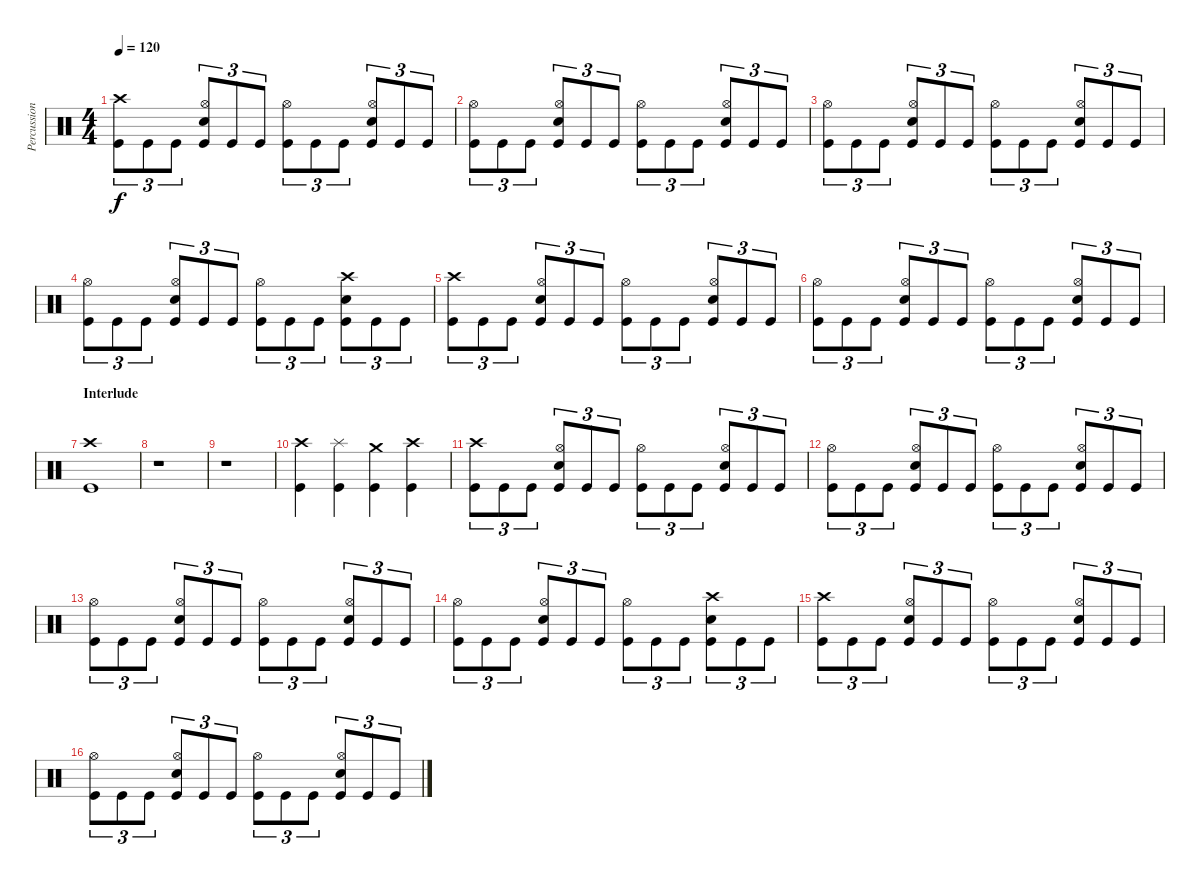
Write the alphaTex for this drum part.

\track ("Percussion" "Percussion") {instrument percussion}
\staff {score}
\articulation defaults
\ts (4 4)
\tempo 120
\clef neutral
\ks c
("Crash high (hit)" "Kick (hit)").8{tu (3 2) dy f} "Kick (hit)".8{tu (3 2)} "Kick (hit)".8{tu (3 2)} ("Hi-Hat (open)" "Snare (hit) 2" "Kick (hit)").8{tu (3 2)} "Kick (hit)".8{tu (3 2)} "Kick (hit)".8{tu (3 2)} ("Hi-Hat (open)" "Kick (hit)").8{tu (3 2)} "Kick (hit)".8{tu (3 2)} "Kick (hit)".8{tu (3 2)} ("Hi-Hat (open)" "Snare (hit) 2" "Kick (hit)").8{tu (3 2)} "Kick (hit)".8{tu (3 2)} "Kick (hit)".8{tu (3 2)} |
("Hi-Hat (open)" "Kick (hit)").8{tu (3 2)} "Kick (hit)".8{tu (3 2)} "Kick (hit)".8{tu (3 2)} ("Hi-Hat (open)" "Snare (hit) 2" "Kick (hit)").8{tu (3 2)} "Kick (hit)".8{tu (3 2)} "Kick (hit)".8{tu (3 2)} ("Hi-Hat (open)" "Kick (hit)").8{tu (3 2)} "Kick (hit)".8{tu (3 2)} "Kick (hit)".8{tu (3 2)} ("Hi-Hat (open)" "Snare (hit) 2" "Kick (hit)").8{tu (3 2)} "Kick (hit)".8{tu (3 2)} "Kick (hit)".8{tu (3 2)} |
("Hi-Hat (open)" "Kick (hit)").8{tu (3 2)} "Kick (hit)".8{tu (3 2)} "Kick (hit)".8{tu (3 2)} ("Hi-Hat (open)" "Snare (hit) 2" "Kick (hit)").8{tu (3 2)} "Kick (hit)".8{tu (3 2)} "Kick (hit)".8{tu (3 2)} ("Hi-Hat (open)" "Kick (hit)").8{tu (3 2)} "Kick (hit)".8{tu (3 2)} "Kick (hit)".8{tu (3 2)} ("Hi-Hat (open)" "Snare (hit) 2" "Kick (hit)").8{tu (3 2)} "Kick (hit)".8{tu (3 2)} "Kick (hit)".8{tu (3 2)} |
("Hi-Hat (open)" "Kick (hit)").8{tu (3 2)} "Kick (hit)".8{tu (3 2)} "Kick (hit)".8{tu (3 2)} ("Hi-Hat (open)" "Snare (hit) 2" "Kick (hit)").8{tu (3 2)} "Kick (hit)".8{tu (3 2)} "Kick (hit)".8{tu (3 2)} ("Hi-Hat (open)" "Kick (hit)").8{tu (3 2)} "Kick (hit)".8{tu (3 2)} "Kick (hit)".8{tu (3 2)} ("Crash high (hit)" "Snare (hit) 2" "Kick (hit)").8{tu (3 2)} "Kick (hit)".8{tu (3 2)} "Kick (hit)".8{tu (3 2)} |
("Crash high (hit)" "Kick (hit)").8{tu (3 2)} "Kick (hit)".8{tu (3 2)} "Kick (hit)".8{tu (3 2)} ("Hi-Hat (open)" "Snare (hit) 2" "Kick (hit)").8{tu (3 2)} "Kick (hit)".8{tu (3 2)} "Kick (hit)".8{tu (3 2)} ("Hi-Hat (open)" "Kick (hit)").8{tu (3 2)} "Kick (hit)".8{tu (3 2)} "Kick (hit)".8{tu (3 2)} ("Hi-Hat (open)" "Snare (hit) 2" "Kick (hit)").8{tu (3 2)} "Kick (hit)".8{tu (3 2)} "Kick (hit)".8{tu (3 2)} |
("Hi-Hat (open)" "Kick (hit)").8{tu (3 2)} "Kick (hit)".8{tu (3 2)} "Kick (hit)".8{tu (3 2)} ("Hi-Hat (open)" "Snare (hit) 2" "Kick (hit)").8{tu (3 2)} "Kick (hit)".8{tu (3 2)} "Kick (hit)".8{tu (3 2)} ("Hi-Hat (open)" "Kick (hit)").8{tu (3 2)} "Kick (hit)".8{tu (3 2)} "Kick (hit)".8{tu (3 2)} ("Hi-Hat (open)" "Snare (hit) 2" "Kick (hit)").8{tu (3 2)} "Kick (hit)".8{tu (3 2)} "Kick (hit)".8{tu (3 2)} |
\section ("" "Interlude")
("Crash high (hit)" "Kick (hit)").1 |
r.1 |
r.1 |
("Crash high (hit)" "Kick (hit)").4 ("Splash (hit)" "Kick (hit)").4 ("Crash medium (hit)" "Kick (hit)").4 ("Crash high (hit)" "Kick (hit)").4 |
("Crash high (hit)" "Kick (hit)").8{tu (3 2)} "Kick (hit)".8{tu (3 2)} "Kick (hit)".8{tu (3 2)} ("Hi-Hat (open)" "Snare (hit) 2" "Kick (hit)").8{tu (3 2)} "Kick (hit)".8{tu (3 2)} "Kick (hit)".8{tu (3 2)} ("Hi-Hat (open)" "Kick (hit)").8{tu (3 2)} "Kick (hit)".8{tu (3 2)} "Kick (hit)".8{tu (3 2)} ("Hi-Hat (open)" "Snare (hit) 2" "Kick (hit)").8{tu (3 2)} "Kick (hit)".8{tu (3 2)} "Kick (hit)".8{tu (3 2)} |
("Hi-Hat (open)" "Kick (hit)").8{tu (3 2)} "Kick (hit)".8{tu (3 2)} "Kick (hit)".8{tu (3 2)} ("Hi-Hat (open)" "Snare (hit) 2" "Kick (hit)").8{tu (3 2)} "Kick (hit)".8{tu (3 2)} "Kick (hit)".8{tu (3 2)} ("Hi-Hat (open)" "Kick (hit)").8{tu (3 2)} "Kick (hit)".8{tu (3 2)} "Kick (hit)".8{tu (3 2)} ("Hi-Hat (open)" "Snare (hit) 2" "Kick (hit)").8{tu (3 2)} "Kick (hit)".8{tu (3 2)} "Kick (hit)".8{tu (3 2)} |
("Hi-Hat (open)" "Kick (hit)").8{tu (3 2)} "Kick (hit)".8{tu (3 2)} "Kick (hit)".8{tu (3 2)} ("Hi-Hat (open)" "Snare (hit) 2" "Kick (hit)").8{tu (3 2)} "Kick (hit)".8{tu (3 2)} "Kick (hit)".8{tu (3 2)} ("Hi-Hat (open)" "Kick (hit)").8{tu (3 2)} "Kick (hit)".8{tu (3 2)} "Kick (hit)".8{tu (3 2)} ("Hi-Hat (open)" "Snare (hit) 2" "Kick (hit)").8{tu (3 2)} "Kick (hit)".8{tu (3 2)} "Kick (hit)".8{tu (3 2)} |
("Hi-Hat (open)" "Kick (hit)").8{tu (3 2)} "Kick (hit)".8{tu (3 2)} "Kick (hit)".8{tu (3 2)} ("Hi-Hat (open)" "Snare (hit) 2" "Kick (hit)").8{tu (3 2)} "Kick (hit)".8{tu (3 2)} "Kick (hit)".8{tu (3 2)} ("Hi-Hat (open)" "Kick (hit)").8{tu (3 2)} "Kick (hit)".8{tu (3 2)} "Kick (hit)".8{tu (3 2)} ("Crash high (hit)" "Snare (hit) 2" "Kick (hit)").8{tu (3 2)} "Kick (hit)".8{tu (3 2)} "Kick (hit)".8{tu (3 2)} |
("Crash high (hit)" "Kick (hit)").8{tu (3 2)} "Kick (hit)".8{tu (3 2)} "Kick (hit)".8{tu (3 2)} ("Hi-Hat (open)" "Snare (hit) 2" "Kick (hit)").8{tu (3 2)} "Kick (hit)".8{tu (3 2)} "Kick (hit)".8{tu (3 2)} ("Hi-Hat (open)" "Kick (hit)").8{tu (3 2)} "Kick (hit)".8{tu (3 2)} "Kick (hit)".8{tu (3 2)} ("Hi-Hat (open)" "Snare (hit) 2" "Kick (hit)").8{tu (3 2)} "Kick (hit)".8{tu (3 2)} "Kick (hit)".8{tu (3 2)} |
("Hi-Hat (open)" "Kick (hit)").8{tu (3 2)} "Kick (hit)".8{tu (3 2)} "Kick (hit)".8{tu (3 2)} ("Hi-Hat (open)" "Snare (hit) 2" "Kick (hit)").8{tu (3 2)} "Kick (hit)".8{tu (3 2)} "Kick (hit)".8{tu (3 2)} ("Hi-Hat (open)" "Kick (hit)").8{tu (3 2)} "Kick (hit)".8{tu (3 2)} "Kick (hit)".8{tu (3 2)} ("Hi-Hat (open)" "Snare (hit) 2" "Kick (hit)").8{tu (3 2)} "Kick (hit)".8{tu (3 2)} "Kick (hit)".8{tu (3 2)}
